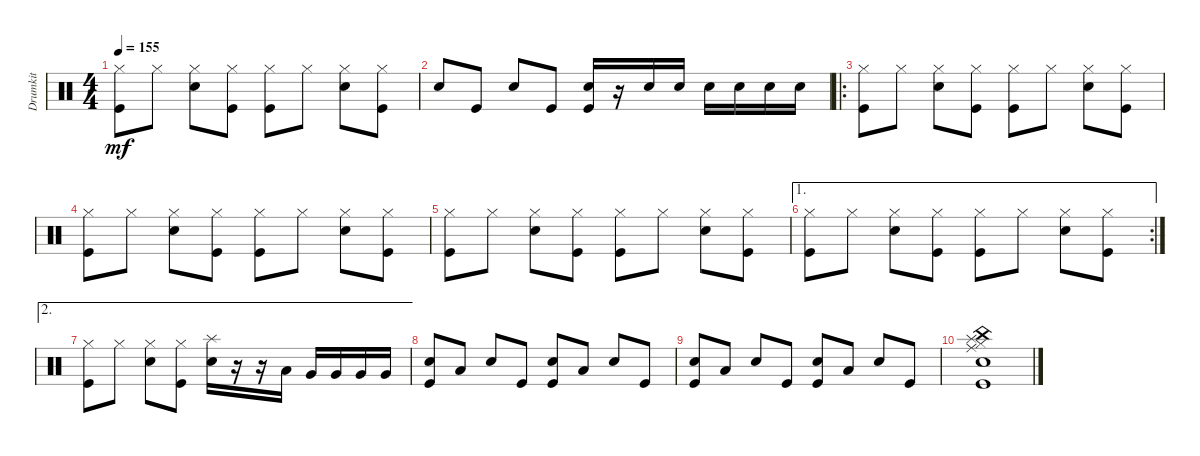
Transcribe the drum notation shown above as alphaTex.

\track ("Drumkit" "Drumkit") {instrument percussion}
\staff {score}
\articulation defaults
\ts (4 4)
\tempo 155
\clef neutral
\ks c
("Hi-Hat (closed)" "Kick (hit)").8{dy mf} "Hi-Hat (closed)".8 ("Hi-Hat (closed)" "Snare (hit) 2").8 ("Hi-Hat (closed)" "Kick (hit)").8 ("Hi-Hat (closed)" "Kick (hit)").8 "Hi-Hat (closed)".8 ("Hi-Hat (closed)" "Snare (hit) 2").8 ("Hi-Hat (closed)" "Kick (hit)").8 |
"Snare (hit) 2".8 "Kick (hit)".8 "Snare (hit) 2".8 "Kick (hit)".8 ("Snare (hit) 2" "Kick (hit)").16 r.16 "Snare (hit) 2".16 "Snare (hit) 2".16 "Snare (hit) 2".16 "Snare (hit) 2".16 "Snare (hit) 2".16 "Snare (hit) 2".16 |
\ro
("Hi-Hat (closed)" "Kick (hit)").8 "Hi-Hat (closed)".8 ("Hi-Hat (closed)" "Snare (hit) 2").8 ("Hi-Hat (closed)" "Kick (hit)").8 ("Hi-Hat (closed)" "Kick (hit)").8 "Hi-Hat (closed)".8 ("Hi-Hat (closed)" "Snare (hit) 2").8 ("Hi-Hat (closed)" "Kick (hit)").8 |
("Hi-Hat (closed)" "Kick (hit)").8 "Hi-Hat (closed)".8 ("Hi-Hat (closed)" "Snare (hit) 2").8 ("Hi-Hat (closed)" "Kick (hit)").8 ("Hi-Hat (closed)" "Kick (hit)").8 "Hi-Hat (closed)".8 ("Hi-Hat (closed)" "Snare (hit) 2").8 ("Hi-Hat (closed)" "Kick (hit)").8 |
("Hi-Hat (closed)" "Kick (hit)").8 "Hi-Hat (closed)".8 ("Hi-Hat (closed)" "Snare (hit) 2").8 ("Hi-Hat (closed)" "Kick (hit)").8 ("Hi-Hat (closed)" "Kick (hit)").8 "Hi-Hat (closed)".8 ("Hi-Hat (closed)" "Snare (hit) 2").8 ("Hi-Hat (closed)" "Kick (hit)").8 |
\ae 1
\rc 2
("Hi-Hat (closed)" "Kick (hit)").8 "Hi-Hat (closed)".8 ("Hi-Hat (closed)" "Snare (hit) 2").8 ("Hi-Hat (closed)" "Kick (hit)").8 ("Hi-Hat (closed)" "Kick (hit)").8 "Hi-Hat (closed)".8 ("Hi-Hat (closed)" "Snare (hit) 2").8 ("Hi-Hat (closed)" "Kick (hit)").8 |
\ae 2
("Hi-Hat (closed)" "Kick (hit)").8 "Hi-Hat (closed)".8 ("Hi-Hat (closed)" "Snare (hit) 2").8 ("Hi-Hat (closed)" "Kick (hit)").8 ("Splash (hit)" "Snare (hit) 2").16 r.16 r.16 "Low Tom (hit)".16 "Very Low Tom (hit)".16 "Very Low Tom (hit)".16 "Very Low Tom (hit)".16 "Very Low Tom (hit)".16 |
("Kick (hit)" "Snare (hit) 2").8 "Low Floor Tom (hit)".8 "Snare (hit) 2".8 "Kick (hit)".8 ("Snare (hit) 2" "Kick (hit)").8 "Low Floor Tom (hit)".8 "Snare (hit) 2".8 "Kick (hit)".8 |
("Kick (hit)" "Snare (hit) 2").8 "Low Floor Tom (hit)".8 "Snare (hit) 2".8 "Kick (hit)".8 ("Snare (hit) 2" "Kick (hit)").8 "Low Floor Tom (hit)".8 "Snare (hit) 2".8 "Kick (hit)".8 |
("Kick (hit)" "Snare (hit) 2" "Ride (middle)" "Hi-Hat (closed)" "Splash (hit)" "China (hit)").1
